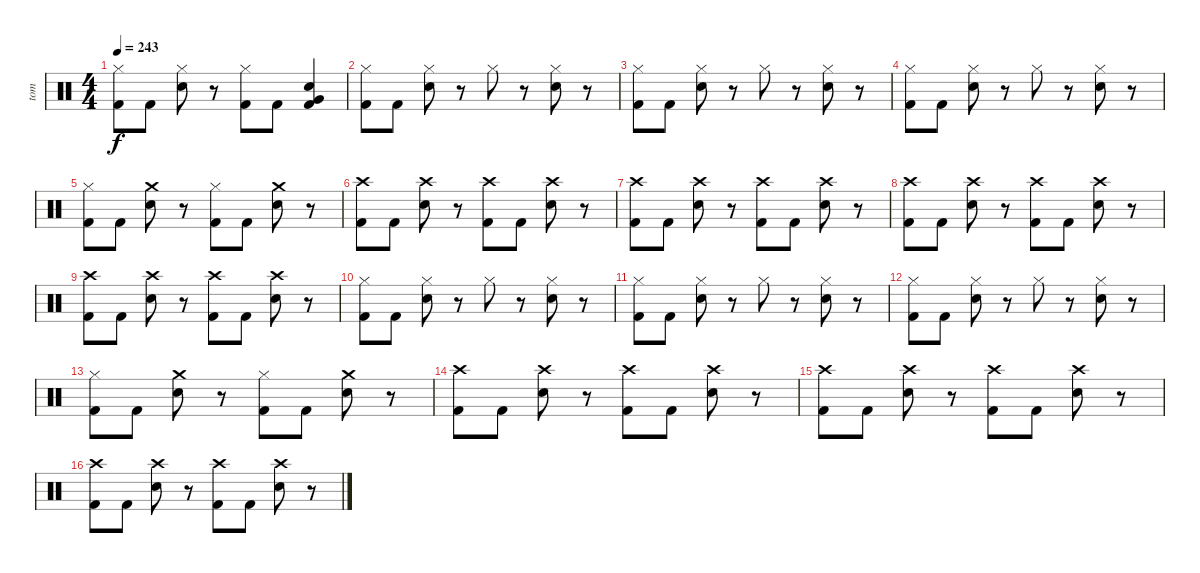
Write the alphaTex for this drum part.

\track ("tom" "tom") {instrument percussion}
\staff {score}
\articulation defaults
\ts (4 4)
\tempo 243
\clef neutral
\ks c
("Hi-Hat (closed)" "Kick (hit) 2").8{dy f} "Kick (hit) 2".8 ("Hi-Hat (closed)" "Electric Snare (hit)").8 r.8 ("Hi-Hat (closed)" "Kick (hit) 2").8 "Kick (hit) 2".8 ("Very Low Tom (hit)" "Kick (hit) 2" "Electric Snare (hit)").4 |
("Hi-Hat (closed)" "Kick (hit) 2").8 "Kick (hit) 2".8 ("Hi-Hat (closed)" "Electric Snare (hit)").8 r.8 "Hi-Hat (closed)".8 r.8 ("Hi-Hat (closed)" "Electric Snare (hit)").8 r.8 |
("Hi-Hat (closed)" "Kick (hit) 2").8 "Kick (hit) 2".8 ("Hi-Hat (closed)" "Electric Snare (hit)").8 r.8 "Hi-Hat (closed)".8 r.8 ("Hi-Hat (closed)" "Electric Snare (hit)").8 r.8 |
("Hi-Hat (closed)" "Kick (hit) 2").8 "Kick (hit) 2".8 ("Hi-Hat (closed)" "Electric Snare (hit)").8 r.8 "Hi-Hat (closed)".8 r.8 ("Hi-Hat (closed)" "Electric Snare (hit)").8 r.8 |
("Hi-Hat (closed)" "Kick (hit) 2").8 "Kick (hit) 2".8 ("Crash medium (hit)" "Electric Snare (hit)").8 r.8 ("Hi-Hat (closed)" "Kick (hit) 2").8 "Kick (hit) 2".8 ("Crash medium (hit)" "Electric Snare (hit)").8 r.8 |
("Crash high (hit)" "Kick (hit) 2").8 "Kick (hit) 2".8 ("Crash high (hit)" "Electric Snare (hit)").8 r.8 ("Crash high (hit)" "Kick (hit) 2").8 "Kick (hit) 2".8 ("Crash high (hit)" "Electric Snare (hit)").8 r.8 |
("Crash high (hit)" "Kick (hit) 2").8 "Kick (hit) 2".8 ("Crash high (hit)" "Electric Snare (hit)").8 r.8 ("Crash high (hit)" "Kick (hit) 2").8 "Kick (hit) 2".8 ("Crash high (hit)" "Electric Snare (hit)").8 r.8 |
("Crash high (hit)" "Kick (hit) 2").8 "Kick (hit) 2".8 ("Crash high (hit)" "Electric Snare (hit)").8 r.8 ("Crash high (hit)" "Kick (hit) 2").8 "Kick (hit) 2".8 ("Crash high (hit)" "Electric Snare (hit)").8 r.8 |
("Crash high (hit)" "Kick (hit) 2").8 "Kick (hit) 2".8 ("Crash high (hit)" "Electric Snare (hit)").8 r.8 ("Crash high (hit)" "Kick (hit) 2").8 "Kick (hit) 2".8 ("Crash high (hit)" "Electric Snare (hit)").8 r.8 |
("Hi-Hat (closed)" "Kick (hit) 2").8 "Kick (hit) 2".8 ("Hi-Hat (closed)" "Electric Snare (hit)").8 r.8 "Hi-Hat (closed)".8 r.8 ("Hi-Hat (closed)" "Electric Snare (hit)").8 r.8 |
("Hi-Hat (closed)" "Kick (hit) 2").8 "Kick (hit) 2".8 ("Hi-Hat (closed)" "Electric Snare (hit)").8 r.8 "Hi-Hat (closed)".8 r.8 ("Hi-Hat (closed)" "Electric Snare (hit)").8 r.8 |
("Hi-Hat (closed)" "Kick (hit) 2").8 "Kick (hit) 2".8 ("Hi-Hat (closed)" "Electric Snare (hit)").8 r.8 "Hi-Hat (closed)".8 r.8 ("Hi-Hat (closed)" "Electric Snare (hit)").8 r.8 |
("Hi-Hat (closed)" "Kick (hit) 2").8 "Kick (hit) 2".8 ("Crash medium (hit)" "Electric Snare (hit)").8 r.8 ("Hi-Hat (closed)" "Kick (hit) 2").8 "Kick (hit) 2".8 ("Crash medium (hit)" "Electric Snare (hit)").8 r.8 |
("Crash high (hit)" "Kick (hit) 2").8 "Kick (hit) 2".8 ("Crash high (hit)" "Electric Snare (hit)").8 r.8 ("Crash high (hit)" "Kick (hit) 2").8 "Kick (hit) 2".8 ("Crash high (hit)" "Electric Snare (hit)").8 r.8 |
("Crash high (hit)" "Kick (hit) 2").8 "Kick (hit) 2".8 ("Crash high (hit)" "Electric Snare (hit)").8 r.8 ("Crash high (hit)" "Kick (hit) 2").8 "Kick (hit) 2".8 ("Crash high (hit)" "Electric Snare (hit)").8 r.8 |
("Crash high (hit)" "Kick (hit) 2").8 "Kick (hit) 2".8 ("Crash high (hit)" "Electric Snare (hit)").8 r.8 ("Crash high (hit)" "Kick (hit) 2").8 "Kick (hit) 2".8 ("Crash high (hit)" "Electric Snare (hit)").8 r.8
